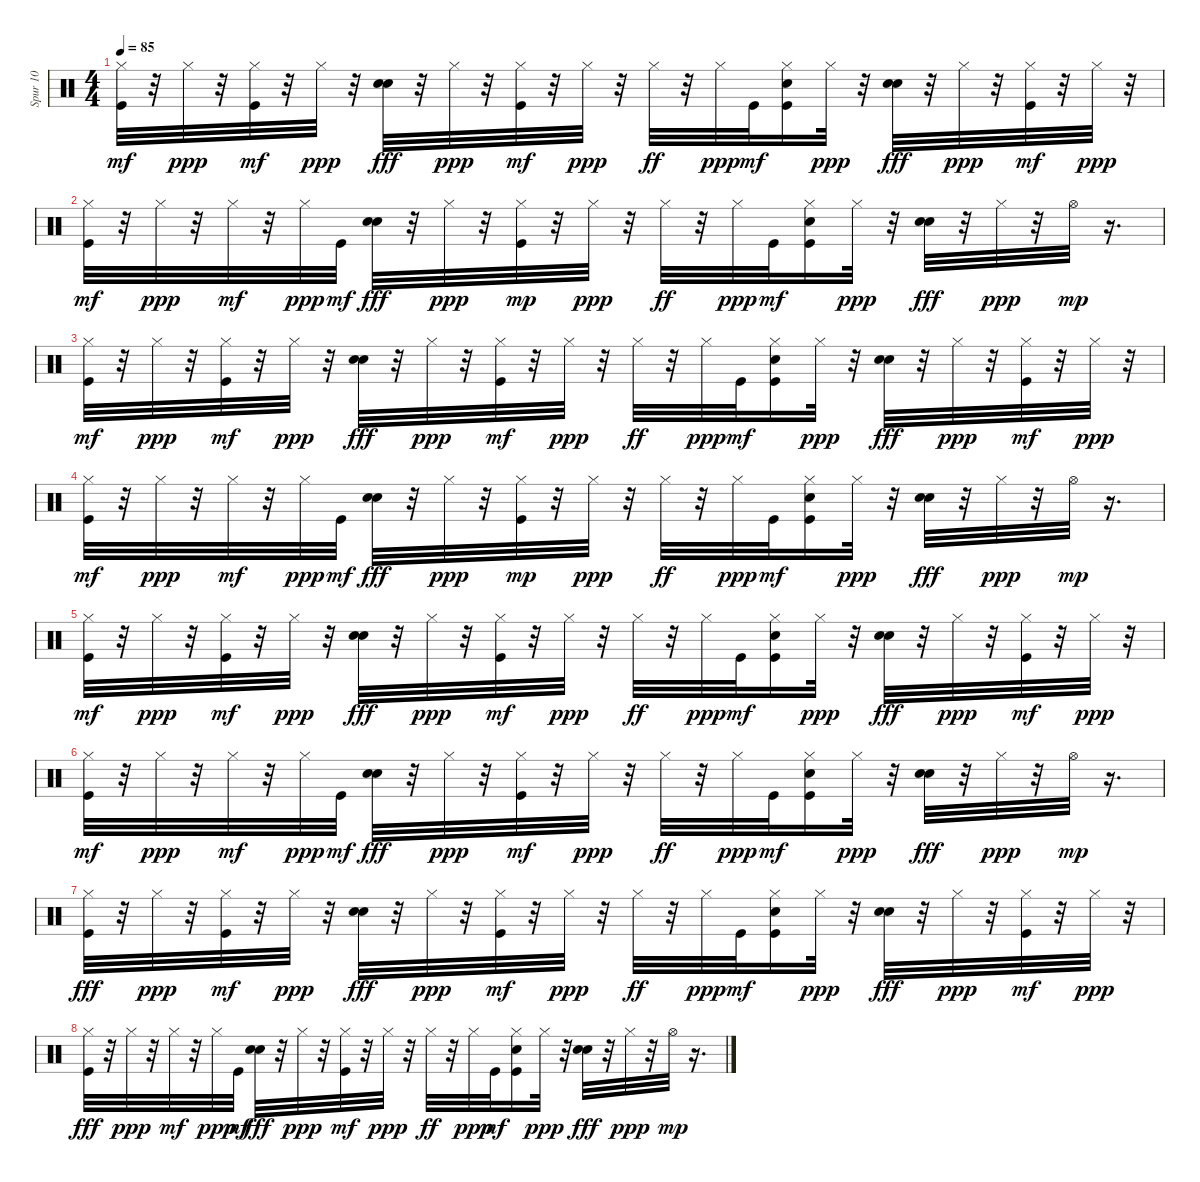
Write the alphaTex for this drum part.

\track ("Spur 10" "Spur 10") {instrument percussion}
\staff {score}
\articulation defaults
\ts (4 4)
\tempo 85
\clef neutral
\ks c
("Hi-Hat (closed)" "Kick (hit)").32{dy mf} r.32 "Hi-Hat (closed)".32{dy ppp} r.32 ("Kick (hit)" "Hi-Hat (closed)").32{dy mf} r.32 "Hi-Hat (closed)".32{dy ppp} r.32 ("Electric Snare (hit)" "Hand Clap (hit)").32{dy fff} r.32 "Hi-Hat (closed)".32{dy ppp} r.32 ("Hi-Hat (closed)" "Kick (hit)").32{dy mf} r.32 "Hi-Hat (closed)".32{dy ppp} r.32 "Hi-Hat (closed)".32{dy ff} r.32 "Hi-Hat (closed)".32{dy ppp} "Kick (hit)".32{dy mf} ("Kick (hit)" "Hi-Hat (closed)" "Snare (hit)").16 "Hi-Hat (closed)".32{dy ppp} r.32 ("Hand Clap (hit)" "Electric Snare (hit)").32{dy fff} r.32 "Hi-Hat (closed)".32{dy ppp} r.32 ("Hi-Hat (closed)" "Kick (hit)").32{dy mf} r.32 "Hi-Hat (closed)".32{dy ppp} r.32 |
("Hi-Hat (closed)" "Kick (hit)").32{dy mf} r.32 "Hi-Hat (closed)".32{dy ppp} r.32 "Hi-Hat (closed)".32{dy mf} r.32 "Hi-Hat (closed)".32{dy ppp} "Kick (hit)".32{dy mf} ("Electric Snare (hit)" "Hand Clap (hit)").32{dy fff} r.32 "Hi-Hat (closed)".32{dy ppp} r.32 ("Kick (hit)" "Hi-Hat (closed)").32{dy mp} r.32 "Hi-Hat (closed)".32{dy ppp} r.32 "Hi-Hat (closed)".32{dy ff} r.32 "Hi-Hat (closed)".32{dy ppp} "Kick (hit)".32{dy mf} ("Kick (hit)" "Hi-Hat (closed)" "Snare (hit)").16 "Hi-Hat (closed)".32{dy ppp} r.32 ("Hand Clap (hit)" "Electric Snare (hit)").32{dy fff} r.32 "Hi-Hat (closed)".32{dy ppp} r.32 "Hi-Hat (open)".32{dy mp} r.16{d} |
("Hi-Hat (closed)" "Kick (hit)").32{dy mf} r.32 "Hi-Hat (closed)".32{dy ppp} r.32 ("Hi-Hat (closed)" "Kick (hit)").32{dy mf} r.32 "Hi-Hat (closed)".32{dy ppp} r.32 ("Electric Snare (hit)" "Hand Clap (hit)").32{dy fff} r.32 "Hi-Hat (closed)".32{dy ppp} r.32 ("Kick (hit)" "Hi-Hat (closed)").32{dy mf} r.32 "Hi-Hat (closed)".32{dy ppp} r.32 "Hi-Hat (closed)".32{dy ff} r.32 "Hi-Hat (closed)".32{dy ppp} "Kick (hit)".32{dy mf} ("Kick (hit)" "Hi-Hat (closed)" "Snare (hit)").16 "Hi-Hat (closed)".32{dy ppp} r.32 ("Hand Clap (hit)" "Electric Snare (hit)").32{dy fff} r.32 "Hi-Hat (closed)".32{dy ppp} r.32 ("Hi-Hat (closed)" "Kick (hit)").32{dy mf} r.32 "Hi-Hat (closed)".32{dy ppp} r.32 |
("Hi-Hat (closed)" "Kick (hit)").32{dy mf} r.32 "Hi-Hat (closed)".32{dy ppp} r.32 "Hi-Hat (closed)".32{dy mf} r.32 "Hi-Hat (closed)".32{dy ppp} "Kick (hit)".32{dy mf} ("Electric Snare (hit)" "Hand Clap (hit)").32{dy fff} r.32 "Hi-Hat (closed)".32{dy ppp} r.32 ("Kick (hit)" "Hi-Hat (closed)").32{dy mp} r.32 "Hi-Hat (closed)".32{dy ppp} r.32 "Hi-Hat (closed)".32{dy ff} r.32 "Hi-Hat (closed)".32{dy ppp} "Kick (hit)".32{dy mf} ("Snare (hit)" "Kick (hit)" "Hi-Hat (closed)").16 "Hi-Hat (closed)".32{dy ppp} r.32 ("Hand Clap (hit)" "Electric Snare (hit)").32{dy fff} r.32 "Hi-Hat (closed)".32{dy ppp} r.32 "Hi-Hat (open)".32{dy mp} r.16{d} |
("Hi-Hat (closed)" "Kick (hit)").32{dy mf} r.32 "Hi-Hat (closed)".32{dy ppp} r.32 ("Kick (hit)" "Hi-Hat (closed)").32{dy mf} r.32 "Hi-Hat (closed)".32{dy ppp} r.32 ("Electric Snare (hit)" "Hand Clap (hit)").32{dy fff} r.32 "Hi-Hat (closed)".32{dy ppp} r.32 ("Hi-Hat (closed)" "Kick (hit)").32{dy mf} r.32 "Hi-Hat (closed)".32{dy ppp} r.32 "Hi-Hat (closed)".32{dy ff} r.32 "Hi-Hat (closed)".32{dy ppp} "Kick (hit)".32{dy mf} ("Kick (hit)" "Snare (hit)" "Hi-Hat (closed)").16 "Hi-Hat (closed)".32{dy ppp} r.32 ("Hand Clap (hit)" "Electric Snare (hit)").32{dy fff} r.32 "Hi-Hat (closed)".32{dy ppp} r.32 ("Hi-Hat (closed)" "Kick (hit)").32{dy mf} r.32 "Hi-Hat (closed)".32{dy ppp} r.32 |
("Hi-Hat (closed)" "Kick (hit)").32{dy mf} r.32 "Hi-Hat (closed)".32{dy ppp} r.32 "Hi-Hat (closed)".32{dy mf} r.32 "Hi-Hat (closed)".32{dy ppp} "Kick (hit)".32{dy mf} ("Electric Snare (hit)" "Hand Clap (hit)").32{dy fff} r.32 "Hi-Hat (closed)".32{dy ppp} r.32 ("Hi-Hat (closed)" "Kick (hit)").32{dy mf} r.32 "Hi-Hat (closed)".32{dy ppp} r.32 "Hi-Hat (closed)".32{dy ff} r.32 "Hi-Hat (closed)".32{dy ppp} "Kick (hit)".32{dy mf} ("Kick (hit)" "Snare (hit)" "Hi-Hat (closed)").16 "Hi-Hat (closed)".32{dy ppp} r.32 ("Hand Clap (hit)" "Electric Snare (hit)").32{dy fff} r.32 "Hi-Hat (closed)".32{dy ppp} r.32 "Hi-Hat (open)".32{dy mp} r.16{d} |
("Kick (hit)" "Hi-Hat (closed)").32{dy fff} r.32 "Hi-Hat (closed)".32{dy ppp} r.32 ("Hi-Hat (closed)" "Kick (hit)").32{dy mf} r.32 "Hi-Hat (closed)".32{dy ppp} r.32 ("Electric Snare (hit)" "Hand Clap (hit)").32{dy fff} r.32 "Hi-Hat (closed)".32{dy ppp} r.32 ("Hi-Hat (closed)" "Kick (hit)").32{dy mf} r.32 "Hi-Hat (closed)".32{dy ppp} r.32 "Hi-Hat (closed)".32{dy ff} r.32 "Hi-Hat (closed)".32{dy ppp} "Kick (hit)".32{dy mf} ("Kick (hit)" "Snare (hit)" "Hi-Hat (closed)").16 "Hi-Hat (closed)".32{dy ppp} r.32 ("Hand Clap (hit)" "Electric Snare (hit)").32{dy fff} r.32 "Hi-Hat (closed)".32{dy ppp} r.32 ("Hi-Hat (closed)" "Kick (hit)").32{dy mf} r.32 "Hi-Hat (closed)".32{dy ppp} r.32 |
("Kick (hit)" "Hi-Hat (closed)").32{dy fff} r.32 "Hi-Hat (closed)".32{dy ppp} r.32 "Hi-Hat (closed)".32{dy mf} r.32 "Hi-Hat (closed)".32{dy ppp} "Kick (hit)".32{dy mf} ("Electric Snare (hit)" "Hand Clap (hit)").32{dy fff} r.32 "Hi-Hat (closed)".32{dy ppp} r.32 ("Hi-Hat (closed)" "Kick (hit)").32{dy mf} r.32 "Hi-Hat (closed)".32{dy ppp} r.32 "Hi-Hat (closed)".32{dy ff} r.32 "Hi-Hat (closed)".32{dy ppp} "Kick (hit)".32{dy mf} ("Snare (hit)" "Kick (hit)" "Hi-Hat (closed)").16 "Hi-Hat (closed)".32{dy ppp} r.32 ("Hand Clap (hit)" "Electric Snare (hit)").32{dy fff} r.32 "Hi-Hat (closed)".32{dy ppp} r.32 "Hi-Hat (open)".32{dy mp} r.16{d}
